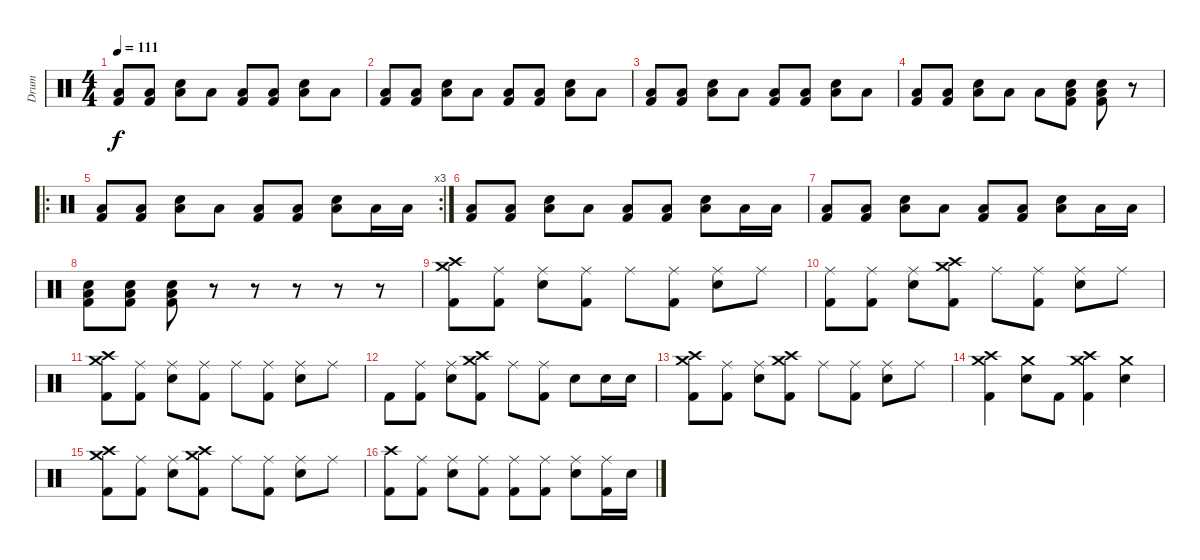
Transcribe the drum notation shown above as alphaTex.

\track ("Drum" "Drum") {instrument percussion}
\staff {score}
\articulation defaults
\ts (4 4)
\tempo 111
\clef neutral
\ks c
("Low Floor Tom (hit)" "Kick (hit) 2").8{dy f} ("Low Floor Tom (hit)" "Kick (hit) 2").8 ("Low Floor Tom (hit)" "Snare (hit) 2").8 "Low Floor Tom (hit)".8 ("Low Floor Tom (hit)" "Kick (hit) 2").8 ("Low Floor Tom (hit)" "Kick (hit) 2").8 ("Low Floor Tom (hit)" "Snare (hit) 2").8 "Low Floor Tom (hit)".8 |
("Low Floor Tom (hit)" "Kick (hit) 2").8 ("Low Floor Tom (hit)" "Kick (hit) 2").8 ("Low Floor Tom (hit)" "Snare (hit) 2").8 "Low Floor Tom (hit)".8 ("Low Floor Tom (hit)" "Kick (hit) 2").8 ("Low Floor Tom (hit)" "Kick (hit) 2").8 ("Low Floor Tom (hit)" "Snare (hit) 2").8 "Low Floor Tom (hit)".8 |
("Low Floor Tom (hit)" "Kick (hit) 2").8 ("Low Floor Tom (hit)" "Kick (hit) 2").8 ("Low Floor Tom (hit)" "Snare (hit) 2").8 "Low Floor Tom (hit)".8 ("Low Floor Tom (hit)" "Kick (hit) 2").8 ("Low Floor Tom (hit)" "Kick (hit) 2").8 ("Low Floor Tom (hit)" "Snare (hit) 2").8 "Low Floor Tom (hit)".8 |
("Low Floor Tom (hit)" "Kick (hit) 2").8 ("Low Floor Tom (hit)" "Kick (hit) 2").8 ("Low Floor Tom (hit)" "Snare (hit) 2").8 "Low Floor Tom (hit)".8 "Low Floor Tom (hit)".8 ("Low Floor Tom (hit)" "Snare (hit) 2" "Kick (hit) 2").8 ("Low Floor Tom (hit)" "Snare (hit) 2" "Kick (hit) 2").8 r.8 |
\ro
\rc 3
("Low Floor Tom (hit)" "Kick (hit) 2").8 ("Low Floor Tom (hit)" "Kick (hit) 2").8 ("Low Floor Tom (hit)" "Snare (hit) 2").8 "Low Floor Tom (hit)".8 ("Low Floor Tom (hit)" "Kick (hit) 2").8 ("Low Floor Tom (hit)" "Kick (hit) 2").8 ("Low Floor Tom (hit)" "Snare (hit) 2").8 "Low Floor Tom (hit)".16 "Low Floor Tom (hit)".16 |
("Low Floor Tom (hit)" "Kick (hit) 2").8 ("Low Floor Tom (hit)" "Kick (hit) 2").8 ("Low Floor Tom (hit)" "Snare (hit) 2").8 "Low Floor Tom (hit)".8 ("Low Floor Tom (hit)" "Kick (hit) 2").8 ("Low Floor Tom (hit)" "Kick (hit) 2").8 ("Low Floor Tom (hit)" "Snare (hit) 2").8 "Low Floor Tom (hit)".16 "Low Floor Tom (hit)".16 |
("Low Floor Tom (hit)" "Kick (hit) 2").8 ("Low Floor Tom (hit)" "Kick (hit) 2").8 ("Low Floor Tom (hit)" "Snare (hit) 2").8 "Low Floor Tom (hit)".8 ("Low Floor Tom (hit)" "Kick (hit) 2").8 ("Low Floor Tom (hit)" "Kick (hit) 2").8 ("Low Floor Tom (hit)" "Snare (hit) 2").8 "Low Floor Tom (hit)".16 "Low Floor Tom (hit)".16 |
("Low Floor Tom (hit)" "Snare (hit) 2" "Kick (hit) 2").8 ("Low Floor Tom (hit)" "Snare (hit) 2" "Kick (hit) 2").8 ("Low Floor Tom (hit)" "Snare (hit) 2" "Kick (hit) 2").8 r.8 r.8 r.8 r.8 r.8 |
("Crash high (hit)" "Crash medium (hit)" "Kick (hit) 2").8 ("Ride (middle)" "Kick (hit) 2").8 ("Ride (middle)" "Snare (hit) 2").8 ("Ride (middle)" "Kick (hit) 2").8 "Ride (middle)".8 ("Ride (middle)" "Kick (hit) 2").8 ("Ride (middle)" "Snare (hit) 2").8 "Ride (middle)".8 |
("Ride (middle)" "Kick (hit) 2").8 ("Ride (middle)" "Kick (hit) 2").8 ("Ride (middle)" "Snare (hit) 2").8 ("Crash high (hit)" "Crash medium (hit)" "Kick (hit) 2").8 "Ride (middle)".8 ("Ride (middle)" "Kick (hit) 2").8 ("Ride (middle)" "Snare (hit) 2").8 "Ride (middle)".8 |
("Crash high (hit)" "Crash medium (hit)" "Kick (hit) 2").8 ("Ride (middle)" "Kick (hit) 2").8 ("Ride (middle)" "Snare (hit) 2").8 ("Ride (middle)" "Kick (hit) 2").8 "Ride (middle)".8 ("Ride (middle)" "Kick (hit) 2").8 ("Ride (middle)" "Snare (hit) 2").8 "Ride (middle)".8 |
"Kick (hit) 2".8 ("Ride (middle)" "Kick (hit) 2").8 ("Ride (middle)" "Snare (hit) 2").8 ("Crash high (hit)" "Crash medium (hit)" "Kick (hit) 2").8 "Ride (middle)".8 ("Ride (middle)" "Kick (hit) 2").8 "Snare (hit) 2".8 "Snare (hit) 2".16 "Snare (hit) 2".16 |
("Crash high (hit)" "Crash medium (hit)" "Kick (hit) 2").8 ("Ride (middle)" "Kick (hit) 2").8 ("Ride (middle)" "Snare (hit) 2").8 ("Crash high (hit)" "Crash medium (hit)" "Kick (hit) 2").8 "Ride (middle)".8 ("Ride (middle)" "Kick (hit) 2").8 ("Ride (middle)" "Snare (hit) 2").8 "Ride (middle)".8 |
("Crash high (hit)" "Crash medium (hit)" "Kick (hit) 2").4 ("Crash medium (hit)" "Snare (hit) 2").8 "Kick (hit) 2".8 ("Crash high (hit)" "Crash medium (hit)" "Kick (hit) 2").4 ("Crash medium (hit)" "Snare (hit) 2").4 |
("Crash high (hit)" "Crash medium (hit)" "Kick (hit) 2").8 ("Ride (middle)" "Kick (hit) 2").8 ("Ride (middle)" "Snare (hit) 2").8 ("Crash high (hit)" "Crash medium (hit)" "Kick (hit) 2").8 "Ride (middle)".8 ("Ride (middle)" "Kick (hit) 2").8 ("Ride (middle)" "Snare (hit) 2").8 "Ride (middle)".8 |
("Crash high (hit)" "Kick (hit) 2").8 ("Ride (middle)" "Kick (hit) 2").8 ("Ride (middle)" "Snare (hit) 2").8 ("Ride (middle)" "Kick (hit) 2").8 ("Ride (middle)" "Kick (hit) 2").8 ("Ride (middle)" "Kick (hit) 2").8 ("Ride (middle)" "Snare (hit) 2").8 ("Ride (middle)" "Kick (hit) 2").16 "Snare (hit) 2".16
